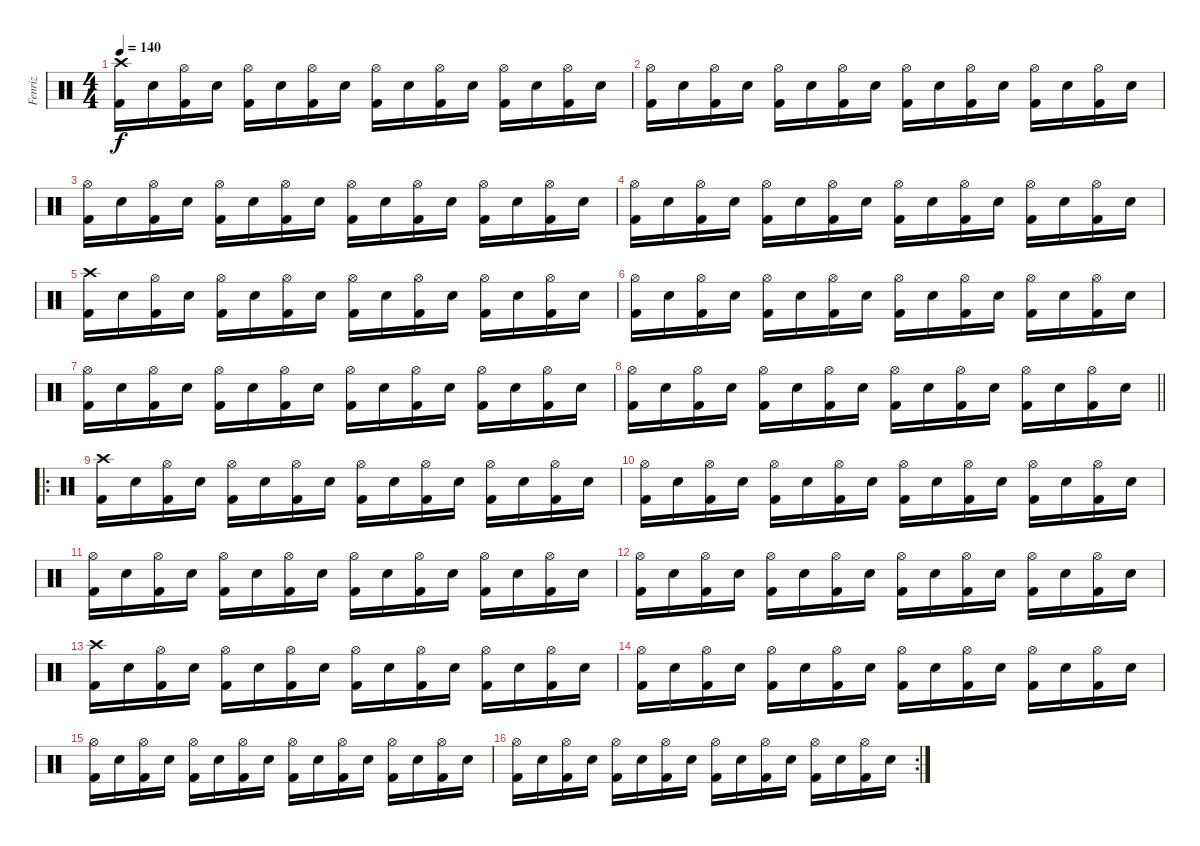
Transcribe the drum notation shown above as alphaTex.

\track ("Fenriz" "Fenriz") {instrument percussion}
\staff {score}
\articulation defaults
\ts (4 4)
\tempo 140
\clef neutral
\ks c
("Kick (hit) 2" "Crash high (hit)").16{dy f} "Electric Snare (hit)".16 ("Kick (hit) 2" "Hi-Hat (open)").16 "Electric Snare (hit)".16 ("Kick (hit) 2" "Hi-Hat (open)").16 "Electric Snare (hit)".16 ("Kick (hit) 2" "Hi-Hat (open)").16 "Electric Snare (hit)".16 ("Kick (hit) 2" "Hi-Hat (open)").16 "Electric Snare (hit)".16 ("Kick (hit) 2" "Hi-Hat (open)").16 "Electric Snare (hit)".16 ("Kick (hit) 2" "Hi-Hat (open)").16 "Electric Snare (hit)".16 ("Kick (hit) 2" "Hi-Hat (open)").16 "Electric Snare (hit)".16 |
("Kick (hit) 2" "Hi-Hat (open)").16 "Electric Snare (hit)".16 ("Kick (hit) 2" "Hi-Hat (open)").16 "Electric Snare (hit)".16 ("Kick (hit) 2" "Hi-Hat (open)").16 "Electric Snare (hit)".16 ("Kick (hit) 2" "Hi-Hat (open)").16 "Electric Snare (hit)".16 ("Kick (hit) 2" "Hi-Hat (open)").16 "Electric Snare (hit)".16 ("Kick (hit) 2" "Hi-Hat (open)").16 "Electric Snare (hit)".16 ("Kick (hit) 2" "Hi-Hat (open)").16 "Electric Snare (hit)".16 ("Kick (hit) 2" "Hi-Hat (open)").16 "Electric Snare (hit)".16 |
("Kick (hit) 2" "Hi-Hat (open)").16 "Electric Snare (hit)".16 ("Kick (hit) 2" "Hi-Hat (open)").16 "Electric Snare (hit)".16 ("Kick (hit) 2" "Hi-Hat (open)").16 "Electric Snare (hit)".16 ("Kick (hit) 2" "Hi-Hat (open)").16 "Electric Snare (hit)".16 ("Kick (hit) 2" "Hi-Hat (open)").16 "Electric Snare (hit)".16 ("Kick (hit) 2" "Hi-Hat (open)").16 "Electric Snare (hit)".16 ("Kick (hit) 2" "Hi-Hat (open)").16 "Electric Snare (hit)".16 ("Kick (hit) 2" "Hi-Hat (open)").16 "Electric Snare (hit)".16 |
("Kick (hit) 2" "Hi-Hat (open)").16 "Electric Snare (hit)".16 ("Kick (hit) 2" "Hi-Hat (open)").16 "Electric Snare (hit)".16 ("Kick (hit) 2" "Hi-Hat (open)").16 "Electric Snare (hit)".16 ("Kick (hit) 2" "Hi-Hat (open)").16 "Electric Snare (hit)".16 ("Kick (hit) 2" "Hi-Hat (open)").16 "Electric Snare (hit)".16 ("Kick (hit) 2" "Hi-Hat (open)").16 "Electric Snare (hit)".16 ("Kick (hit) 2" "Hi-Hat (open)").16 "Electric Snare (hit)".16 ("Kick (hit) 2" "Hi-Hat (open)").16 "Electric Snare (hit)".16 |
("Kick (hit) 2" "Crash high (hit)").16 "Electric Snare (hit)".16 ("Kick (hit) 2" "Hi-Hat (open)").16 "Electric Snare (hit)".16 ("Kick (hit) 2" "Hi-Hat (open)").16 "Electric Snare (hit)".16 ("Kick (hit) 2" "Hi-Hat (open)").16 "Electric Snare (hit)".16 ("Kick (hit) 2" "Hi-Hat (open)").16 "Electric Snare (hit)".16 ("Kick (hit) 2" "Hi-Hat (open)").16 "Electric Snare (hit)".16 ("Kick (hit) 2" "Hi-Hat (open)").16 "Electric Snare (hit)".16 ("Kick (hit) 2" "Hi-Hat (open)").16 "Electric Snare (hit)".16 |
("Kick (hit) 2" "Hi-Hat (open)").16 "Electric Snare (hit)".16 ("Kick (hit) 2" "Hi-Hat (open)").16 "Electric Snare (hit)".16 ("Kick (hit) 2" "Hi-Hat (open)").16 "Electric Snare (hit)".16 ("Kick (hit) 2" "Hi-Hat (open)").16 "Electric Snare (hit)".16 ("Kick (hit) 2" "Hi-Hat (open)").16 "Electric Snare (hit)".16 ("Kick (hit) 2" "Hi-Hat (open)").16 "Electric Snare (hit)".16 ("Kick (hit) 2" "Hi-Hat (open)").16 "Electric Snare (hit)".16 ("Kick (hit) 2" "Hi-Hat (open)").16 "Electric Snare (hit)".16 |
("Kick (hit) 2" "Hi-Hat (open)").16 "Electric Snare (hit)".16 ("Kick (hit) 2" "Hi-Hat (open)").16 "Electric Snare (hit)".16 ("Kick (hit) 2" "Hi-Hat (open)").16 "Electric Snare (hit)".16 ("Kick (hit) 2" "Hi-Hat (open)").16 "Electric Snare (hit)".16 ("Kick (hit) 2" "Hi-Hat (open)").16 "Electric Snare (hit)".16 ("Kick (hit) 2" "Hi-Hat (open)").16 "Electric Snare (hit)".16 ("Kick (hit) 2" "Hi-Hat (open)").16 "Electric Snare (hit)".16 ("Kick (hit) 2" "Hi-Hat (open)").16 "Electric Snare (hit)".16 |
\barLineRight lightlight
("Kick (hit) 2" "Hi-Hat (open)").16 "Electric Snare (hit)".16 ("Kick (hit) 2" "Hi-Hat (open)").16 "Electric Snare (hit)".16 ("Kick (hit) 2" "Hi-Hat (open)").16 "Electric Snare (hit)".16 ("Kick (hit) 2" "Hi-Hat (open)").16 "Electric Snare (hit)".16 ("Kick (hit) 2" "Hi-Hat (open)").16 "Electric Snare (hit)".16 ("Kick (hit) 2" "Hi-Hat (open)").16 "Electric Snare (hit)".16 ("Kick (hit) 2" "Hi-Hat (open)").16 "Electric Snare (hit)".16 ("Kick (hit) 2" "Hi-Hat (open)").16 "Electric Snare (hit)".16 |
\ro
("Kick (hit) 2" "Crash high (hit)").16 "Electric Snare (hit)".16 ("Kick (hit) 2" "Hi-Hat (open)").16 "Electric Snare (hit)".16 ("Kick (hit) 2" "Hi-Hat (open)").16 "Electric Snare (hit)".16 ("Kick (hit) 2" "Hi-Hat (open)").16 "Electric Snare (hit)".16 ("Kick (hit) 2" "Hi-Hat (open)").16 "Electric Snare (hit)".16 ("Kick (hit) 2" "Hi-Hat (open)").16 "Electric Snare (hit)".16 ("Kick (hit) 2" "Hi-Hat (open)").16 "Electric Snare (hit)".16 ("Kick (hit) 2" "Hi-Hat (open)").16 "Electric Snare (hit)".16 |
("Kick (hit) 2" "Hi-Hat (open)").16 "Electric Snare (hit)".16 ("Kick (hit) 2" "Hi-Hat (open)").16 "Electric Snare (hit)".16 ("Kick (hit) 2" "Hi-Hat (open)").16 "Electric Snare (hit)".16 ("Kick (hit) 2" "Hi-Hat (open)").16 "Electric Snare (hit)".16 ("Kick (hit) 2" "Hi-Hat (open)").16 "Electric Snare (hit)".16 ("Kick (hit) 2" "Hi-Hat (open)").16 "Electric Snare (hit)".16 ("Kick (hit) 2" "Hi-Hat (open)").16 "Electric Snare (hit)".16 ("Kick (hit) 2" "Hi-Hat (open)").16 "Electric Snare (hit)".16 |
("Kick (hit) 2" "Hi-Hat (open)").16 "Electric Snare (hit)".16 ("Kick (hit) 2" "Hi-Hat (open)").16 "Electric Snare (hit)".16 ("Kick (hit) 2" "Hi-Hat (open)").16 "Electric Snare (hit)".16 ("Kick (hit) 2" "Hi-Hat (open)").16 "Electric Snare (hit)".16 ("Kick (hit) 2" "Hi-Hat (open)").16 "Electric Snare (hit)".16 ("Kick (hit) 2" "Hi-Hat (open)").16 "Electric Snare (hit)".16 ("Kick (hit) 2" "Hi-Hat (open)").16 "Electric Snare (hit)".16 ("Kick (hit) 2" "Hi-Hat (open)").16 "Electric Snare (hit)".16 |
("Kick (hit) 2" "Hi-Hat (open)").16 "Electric Snare (hit)".16 ("Kick (hit) 2" "Hi-Hat (open)").16 "Electric Snare (hit)".16 ("Kick (hit) 2" "Hi-Hat (open)").16 "Electric Snare (hit)".16 ("Kick (hit) 2" "Hi-Hat (open)").16 "Electric Snare (hit)".16 ("Kick (hit) 2" "Hi-Hat (open)").16 "Electric Snare (hit)".16 ("Kick (hit) 2" "Hi-Hat (open)").16 "Electric Snare (hit)".16 ("Kick (hit) 2" "Hi-Hat (open)").16 "Electric Snare (hit)".16 ("Kick (hit) 2" "Hi-Hat (open)").16 "Electric Snare (hit)".16 |
("Kick (hit) 2" "Crash high (hit)").16 "Electric Snare (hit)".16 ("Kick (hit) 2" "Hi-Hat (open)").16 "Electric Snare (hit)".16 ("Kick (hit) 2" "Hi-Hat (open)").16 "Electric Snare (hit)".16 ("Kick (hit) 2" "Hi-Hat (open)").16 "Electric Snare (hit)".16 ("Kick (hit) 2" "Hi-Hat (open)").16 "Electric Snare (hit)".16 ("Kick (hit) 2" "Hi-Hat (open)").16 "Electric Snare (hit)".16 ("Kick (hit) 2" "Hi-Hat (open)").16 "Electric Snare (hit)".16 ("Kick (hit) 2" "Hi-Hat (open)").16 "Electric Snare (hit)".16 |
("Kick (hit) 2" "Hi-Hat (open)").16 "Electric Snare (hit)".16 ("Kick (hit) 2" "Hi-Hat (open)").16 "Electric Snare (hit)".16 ("Kick (hit) 2" "Hi-Hat (open)").16 "Electric Snare (hit)".16 ("Kick (hit) 2" "Hi-Hat (open)").16 "Electric Snare (hit)".16 ("Kick (hit) 2" "Hi-Hat (open)").16 "Electric Snare (hit)".16 ("Kick (hit) 2" "Hi-Hat (open)").16 "Electric Snare (hit)".16 ("Kick (hit) 2" "Hi-Hat (open)").16 "Electric Snare (hit)".16 ("Kick (hit) 2" "Hi-Hat (open)").16 "Electric Snare (hit)".16 |
("Kick (hit) 2" "Hi-Hat (open)").16 "Electric Snare (hit)".16 ("Kick (hit) 2" "Hi-Hat (open)").16 "Electric Snare (hit)".16 ("Kick (hit) 2" "Hi-Hat (open)").16 "Electric Snare (hit)".16 ("Kick (hit) 2" "Hi-Hat (open)").16 "Electric Snare (hit)".16 ("Kick (hit) 2" "Hi-Hat (open)").16 "Electric Snare (hit)".16 ("Kick (hit) 2" "Hi-Hat (open)").16 "Electric Snare (hit)".16 ("Kick (hit) 2" "Hi-Hat (open)").16 "Electric Snare (hit)".16 ("Kick (hit) 2" "Hi-Hat (open)").16 "Electric Snare (hit)".16 |
\rc 2
("Kick (hit) 2" "Hi-Hat (open)").16 "Electric Snare (hit)".16 ("Kick (hit) 2" "Hi-Hat (open)").16 "Electric Snare (hit)".16 ("Kick (hit) 2" "Hi-Hat (open)").16 "Electric Snare (hit)".16 ("Kick (hit) 2" "Hi-Hat (open)").16 "Electric Snare (hit)".16 ("Kick (hit) 2" "Hi-Hat (open)").16 "Electric Snare (hit)".16 ("Kick (hit) 2" "Hi-Hat (open)").16 "Electric Snare (hit)".16 ("Kick (hit) 2" "Hi-Hat (open)").16 "Electric Snare (hit)".16 ("Kick (hit) 2" "Hi-Hat (open)").16 "Electric Snare (hit)".16
